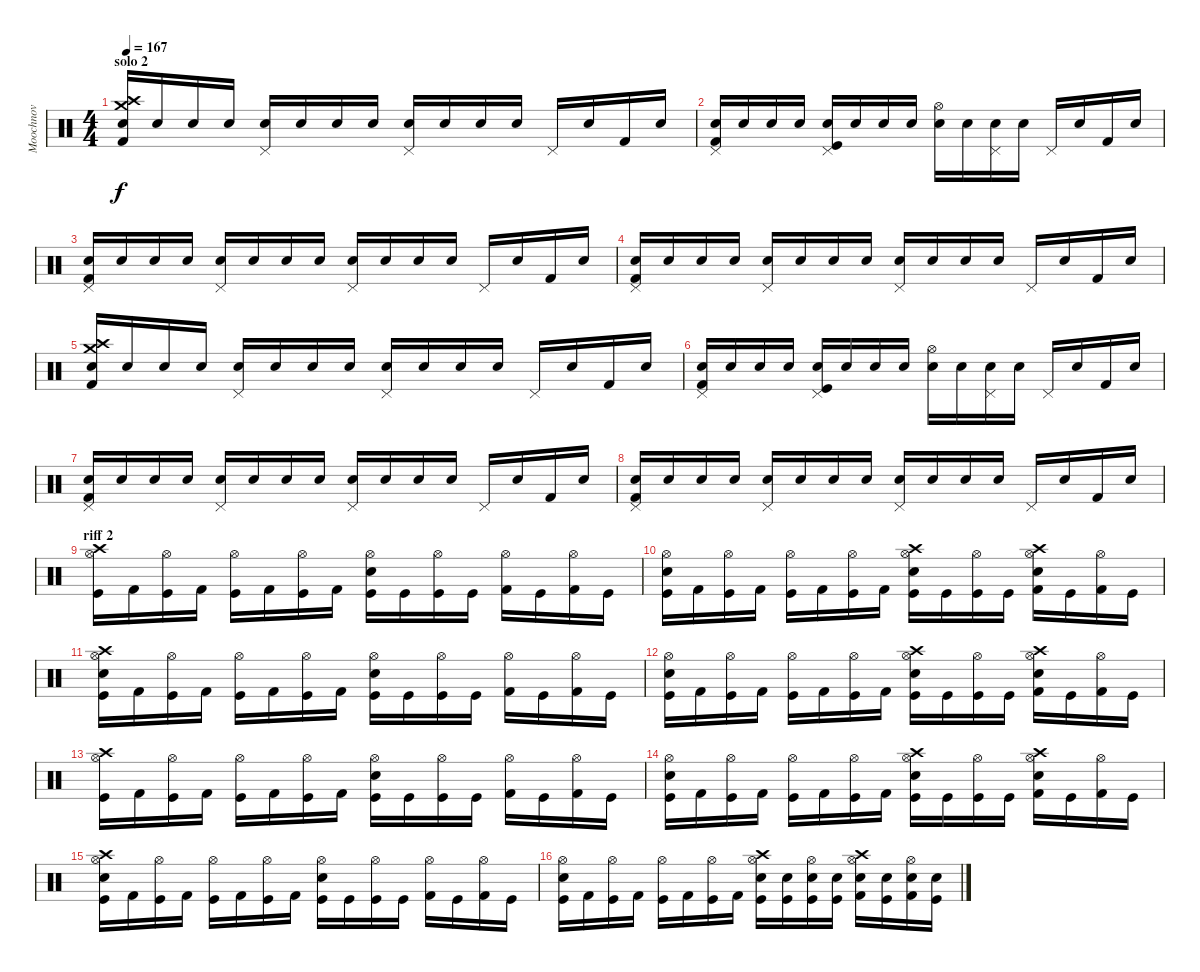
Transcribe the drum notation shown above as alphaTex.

\track ("Moochnov" "Moochnov") {instrument percussion}
\staff {score}
\articulation defaults
\ts (4 4)
\section ("" "solo 2")
\tempo 167
\clef neutral
\ks c
("Snare (hit)"{x} "Crash medium (hit)" "Crash high (hit)" "Kick (hit) 2").16{dy f} "Snare (hit)"{x}.16 "Snare (hit)"{x}.16 "Snare (hit)"{x}.16 ("Snare (hit)"{x} "Pedal Hi-Hat (hit)").16 "Snare (hit)"{x}.16 "Snare (hit)"{x}.16 "Snare (hit)"{x}.16 ("Snare (hit) 2" "Pedal Hi-Hat (hit)").16 "Snare (hit)"{x}.16 "Snare (hit)"{x}.16 "Snare (hit)"{x}.16 "Pedal Hi-Hat (hit)".16 "Snare (hit)"{x}.16 "Kick (hit) 2".16 "Snare (hit)"{x}.16 |
("Snare (hit)"{x} "Pedal Hi-Hat (hit)" "Kick (hit) 2").16 "Snare (hit)"{x}.16 "Snare (hit)"{x}.16 "Snare (hit)"{x}.16 ("Snare (hit)"{x} "Pedal Hi-Hat (hit)" "Kick (hit)").16 "Snare (hit)"{x}.16 "Snare (hit)"{x}.16 "Snare (hit)"{x}.16 ("Snare (hit) 2" "Hi-Hat (open)").16 "Snare (hit)"{x}.16 ("Snare (hit)"{x} "Pedal Hi-Hat (hit)").16 "Snare (hit)"{x}.16 "Pedal Hi-Hat (hit)".16 "Snare (hit)"{x}.16 "Kick (hit) 2".16 "Snare (hit)"{x}.16 |
("Snare (hit)"{x} "Pedal Hi-Hat (hit)" "Kick (hit) 2").16 "Snare (hit)"{x}.16 "Snare (hit)"{x}.16 "Snare (hit)"{x}.16 ("Snare (hit)"{x} "Pedal Hi-Hat (hit)").16 "Snare (hit)"{x}.16 "Snare (hit)"{x}.16 "Snare (hit)"{x}.16 ("Snare (hit) 2" "Pedal Hi-Hat (hit)").16 "Snare (hit)"{x}.16 "Snare (hit)"{x}.16 "Snare (hit)"{x}.16 "Pedal Hi-Hat (hit)".16 "Snare (hit)"{x}.16 "Kick (hit) 2".16 "Snare (hit)"{x}.16 |
("Snare (hit)"{x} "Pedal Hi-Hat (hit)" "Kick (hit) 2").16 "Snare (hit)"{x}.16 "Snare (hit)"{x}.16 "Snare (hit)"{x}.16 ("Snare (hit)"{x} "Pedal Hi-Hat (hit)").16 "Snare (hit)"{x}.16 "Snare (hit)"{x}.16 "Snare (hit)"{x}.16 ("Snare (hit) 2" "Pedal Hi-Hat (hit)").16 "Snare (hit)"{x}.16 "Snare (hit)"{x}.16 "Snare (hit)"{x}.16 "Pedal Hi-Hat (hit)".16 "Snare (hit)"{x}.16 "Kick (hit) 2".16 "Snare (hit)"{x}.16 |
("Snare (hit)"{x} "Crash medium (hit)" "Crash high (hit)" "Kick (hit) 2").16 "Snare (hit)"{x}.16 "Snare (hit)"{x}.16 "Snare (hit)"{x}.16 ("Snare (hit)"{x} "Pedal Hi-Hat (hit)").16 "Snare (hit)"{x}.16 "Snare (hit)"{x}.16 "Snare (hit)"{x}.16 ("Snare (hit) 2" "Pedal Hi-Hat (hit)").16 "Snare (hit)"{x}.16 "Snare (hit)"{x}.16 "Snare (hit)"{x}.16 "Pedal Hi-Hat (hit)".16 "Snare (hit)"{x}.16 "Kick (hit) 2".16 "Snare (hit)"{x}.16 |
("Snare (hit)"{x} "Pedal Hi-Hat (hit)" "Kick (hit) 2").16 "Snare (hit)"{x}.16 "Snare (hit)"{x}.16 "Snare (hit)"{x}.16 ("Snare (hit)"{x} "Pedal Hi-Hat (hit)" "Kick (hit)").16 "Snare (hit)"{x}.16 "Snare (hit)"{x}.16 "Snare (hit)"{x}.16 ("Snare (hit) 2" "Hi-Hat (open)").16 "Snare (hit)"{x}.16 ("Snare (hit)"{x} "Pedal Hi-Hat (hit)").16 "Snare (hit)"{x}.16 "Pedal Hi-Hat (hit)".16 "Snare (hit)"{x}.16 "Kick (hit) 2".16 "Snare (hit)"{x}.16 |
("Snare (hit)"{x} "Pedal Hi-Hat (hit)" "Kick (hit) 2").16 "Snare (hit)"{x}.16 "Snare (hit)"{x}.16 "Snare (hit)"{x}.16 ("Snare (hit)"{x} "Pedal Hi-Hat (hit)").16 "Snare (hit)"{x}.16 "Snare (hit)"{x}.16 "Snare (hit)"{x}.16 ("Snare (hit) 2" "Pedal Hi-Hat (hit)").16 "Snare (hit)"{x}.16 "Snare (hit)"{x}.16 "Snare (hit)"{x}.16 "Pedal Hi-Hat (hit)".16 "Snare (hit)"{x}.16 "Kick (hit) 2".16 "Snare (hit)"{x}.16 |
("Snare (hit)"{x} "Pedal Hi-Hat (hit)" "Kick (hit) 2").16 "Snare (hit)"{x}.16 "Snare (hit)"{x}.16 "Snare (hit)"{x}.16 ("Snare (hit)"{x} "Pedal Hi-Hat (hit)").16 "Snare (hit)"{x}.16 "Snare (hit)"{x}.16 "Snare (hit)"{x}.16 ("Snare (hit) 2" "Pedal Hi-Hat (hit)").16 "Snare (hit)"{x}.16 "Snare (hit)"{x}.16 "Snare (hit)"{x}.16 "Pedal Hi-Hat (hit)".16 "Snare (hit)"{x}.16 "Kick (hit) 2".16 "Snare (hit)"{x}.16 |
\section ("" "riff 2")
("Kick (hit)" "Crash high (hit)" "Hi-Hat (open)").16 "Kick (hit) 2".16 ("Kick (hit)" "Hi-Hat (open)").16 "Kick (hit) 2".16 ("Kick (hit)" "Hi-Hat (open)").16 "Kick (hit) 2".16 ("Kick (hit)" "Hi-Hat (open)").16 "Kick (hit) 2".16 ("Kick (hit)" "Snare (hit) 2" "Hi-Hat (open)").16 "Kick (hit)".16 ("Kick (hit)" "Hi-Hat (open)").16 "Kick (hit)".16 ("Kick (hit) 2" "Hi-Hat (open)").16 "Kick (hit)".16 ("Kick (hit) 2" "Hi-Hat (open)").16 "Kick (hit)".16 |
("Kick (hit)" "Snare (hit) 2" "Hi-Hat (open)").16 "Kick (hit) 2".16 ("Kick (hit)" "Hi-Hat (open)").16 "Kick (hit) 2".16 ("Kick (hit)" "Hi-Hat (open)").16 "Kick (hit) 2".16 ("Kick (hit)" "Hi-Hat (open)").16 "Kick (hit) 2".16 ("Kick (hit)" "Snare (hit) 2" "Hi-Hat (open)" "Crash high (hit)").16 "Kick (hit)".16 ("Kick (hit)" "Hi-Hat (open)").16 "Kick (hit)".16 ("Kick (hit) 2" "Snare (hit) 2" "Hi-Hat (open)" "Crash high (hit)").16 "Kick (hit)".16 ("Kick (hit) 2" "Hi-Hat (open)").16 "Kick (hit)".16 |
("Kick (hit)" "Snare (hit) 2" "Hi-Hat (open)" "Crash high (hit)").16 "Kick (hit) 2".16 ("Kick (hit)" "Hi-Hat (open)").16 "Kick (hit) 2".16 ("Kick (hit)" "Hi-Hat (open)").16 "Kick (hit) 2".16 ("Kick (hit)" "Hi-Hat (open)").16 "Kick (hit) 2".16 ("Kick (hit)" "Snare (hit) 2" "Hi-Hat (open)").16 "Kick (hit)".16 ("Kick (hit)" "Hi-Hat (open)").16 "Kick (hit)".16 ("Kick (hit) 2" "Hi-Hat (open)").16 "Kick (hit)".16 ("Kick (hit) 2" "Hi-Hat (open)").16 "Kick (hit)".16 |
("Kick (hit)" "Snare (hit) 2" "Hi-Hat (open)").16 "Kick (hit) 2".16 ("Kick (hit)" "Hi-Hat (open)").16 "Kick (hit) 2".16 ("Kick (hit)" "Hi-Hat (open)").16 "Kick (hit) 2".16 ("Kick (hit)" "Hi-Hat (open)").16 "Kick (hit) 2".16 ("Kick (hit)" "Snare (hit) 2" "Hi-Hat (open)" "Crash high (hit)").16 "Kick (hit)".16 ("Kick (hit)" "Hi-Hat (open)").16 "Kick (hit)".16 ("Kick (hit) 2" "Snare (hit) 2" "Hi-Hat (open)" "Crash high (hit)").16 "Kick (hit)".16 ("Kick (hit) 2" "Hi-Hat (open)").16 "Kick (hit)".16 |
("Kick (hit)" "Crash high (hit)" "Hi-Hat (open)").16 "Kick (hit) 2".16 ("Kick (hit)" "Hi-Hat (open)").16 "Kick (hit) 2".16 ("Kick (hit)" "Hi-Hat (open)").16 "Kick (hit) 2".16 ("Kick (hit)" "Hi-Hat (open)").16 "Kick (hit) 2".16 ("Kick (hit)" "Snare (hit) 2" "Hi-Hat (open)").16 "Kick (hit)".16 ("Kick (hit)" "Hi-Hat (open)").16 "Kick (hit)".16 ("Kick (hit) 2" "Hi-Hat (open)").16 "Kick (hit)".16 ("Kick (hit) 2" "Hi-Hat (open)").16 "Kick (hit)".16 |
("Kick (hit)" "Snare (hit) 2" "Hi-Hat (open)").16 "Kick (hit) 2".16 ("Kick (hit)" "Hi-Hat (open)").16 "Kick (hit) 2".16 ("Kick (hit)" "Hi-Hat (open)").16 "Kick (hit) 2".16 ("Kick (hit)" "Hi-Hat (open)").16 "Kick (hit) 2".16 ("Kick (hit)" "Snare (hit) 2" "Hi-Hat (open)" "Crash high (hit)").16 "Kick (hit)".16 ("Kick (hit)" "Hi-Hat (open)").16 "Kick (hit)".16 ("Kick (hit) 2" "Snare (hit) 2" "Hi-Hat (open)" "Crash high (hit)").16 "Kick (hit)".16 ("Kick (hit) 2" "Hi-Hat (open)").16 "Kick (hit)".16 |
("Kick (hit)" "Snare (hit) 2" "Hi-Hat (open)" "Crash high (hit)").16 "Kick (hit) 2".16 ("Kick (hit)" "Hi-Hat (open)").16 "Kick (hit) 2".16 ("Kick (hit)" "Hi-Hat (open)").16 "Kick (hit) 2".16 ("Kick (hit)" "Hi-Hat (open)").16 "Kick (hit) 2".16 ("Kick (hit)" "Snare (hit) 2" "Hi-Hat (open)").16 "Kick (hit)".16 ("Kick (hit)" "Hi-Hat (open)").16 "Kick (hit)".16 ("Kick (hit) 2" "Hi-Hat (open)").16 "Kick (hit)".16 ("Kick (hit) 2" "Hi-Hat (open)").16 "Kick (hit)".16 |
("Kick (hit)" "Snare (hit) 2" "Hi-Hat (open)").16 "Kick (hit) 2".16 ("Kick (hit)" "Hi-Hat (open)").16 "Kick (hit) 2".16 ("Kick (hit)" "Hi-Hat (open)").16 "Kick (hit) 2".16 ("Kick (hit)" "Hi-Hat (open)").16 "Kick (hit) 2".16 ("Kick (hit)" "Snare (hit) 2" "Hi-Hat (open)" "Crash high (hit)").16 ("Kick (hit)" "Snare (hit) 2").16 ("Kick (hit)" "Snare (hit) 2" "Hi-Hat (open)").16 ("Kick (hit)" "Snare (hit) 2").16 ("Kick (hit) 2" "Snare (hit) 2" "Hi-Hat (open)" "Crash high (hit)").16 ("Kick (hit)" "Snare (hit) 2").16 ("Kick (hit) 2" "Snare (hit) 2" "Hi-Hat (open)").16 ("Kick (hit)" "Snare (hit) 2").16
